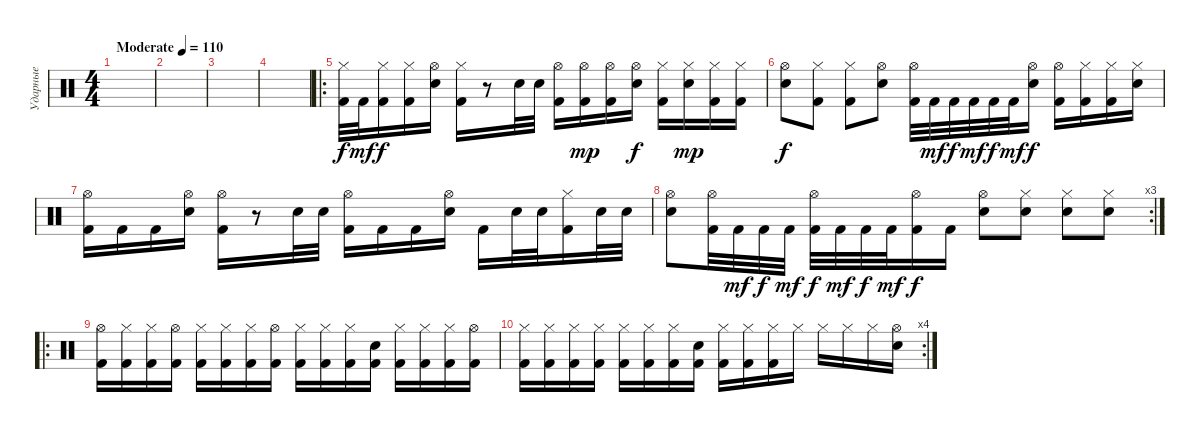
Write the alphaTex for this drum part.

\track ("Ударные" "Ударные") {instrument percussion}
\staff {score}
\articulation defaults
\ts (4 4)
\tempo (110 "Moderate")
\clef neutral
\ks c
|
|
|
|
\ro
("Hi-Hat (closed)" "Kick (hit) 2").32 "Kick (hit) 2".32{dy mf} ("Hi-Hat (closed)" "Kick (hit) 2").16{dy f} ("Hi-Hat (closed)" "Kick (hit) 2").16 ("Hi-Hat (open)" "Electric Snare (hit)").16 ("Hi-Hat (closed)" "Kick (hit) 2").16 r.8 "Electric Snare (hit)".32 "Electric Snare (hit)".32 ("Hi-Hat (open)" "Kick (hit) 2").16 ("Hi-Hat (open)" "Kick (hit) 2").16{dy mp} ("Hi-Hat (open)" "Kick (hit) 2").16 ("Hi-Hat (open)" "Electric Snare (hit)").16{dy f} ("Hi-Hat (closed)" "Kick (hit) 2").16 ("Hi-Hat (closed)" "Electric Snare (hit)").16{dy mp} ("Hi-Hat (closed)" "Kick (hit) 2").16 ("Hi-Hat (closed)" "Kick (hit) 2").16 |
("Hi-Hat (open)" "Electric Snare (hit)").8{dy f} ("Hi-Hat (closed)" "Kick (hit) 2").8 ("Hi-Hat (closed)" "Kick (hit) 2").8 ("Hi-Hat (open)" "Electric Snare (hit)").8 ("Hi-Hat (open)" "Kick (hit) 2").32 "Kick (hit) 2".32{dy mf} "Kick (hit) 2".32{dy f} "Kick (hit) 2".32{dy mf} "Kick (hit) 2".32{dy f} "Kick (hit) 2".32{dy mf} ("Hi-Hat (open)" "Electric Snare (hit)").16{dy f} ("Hi-Hat (open)" "Kick (hit) 2").16 ("Hi-Hat (closed)" "Kick (hit) 2").16 ("Hi-Hat (closed)" "Kick (hit) 2").16 ("Hi-Hat (closed)" "Electric Snare (hit)").16 |
("Hi-Hat (open)" "Kick (hit) 2").16 "Kick (hit) 2".16 "Kick (hit) 2".16 ("Hi-Hat (open)" "Electric Snare (hit)").16 ("Hi-Hat (open)" "Kick (hit) 2").16 r.8 "Electric Snare (hit)".32 "Electric Snare (hit)".32 ("Hi-Hat (open)" "Kick (hit) 2").16 "Kick (hit) 2".16 "Kick (hit) 2".16 ("Hi-Hat (open)" "Electric Snare (hit)").16 "Kick (hit) 2".16 "Electric Snare (hit)".32 "Electric Snare (hit)".32 ("Hi-Hat (closed)" "Kick (hit) 2").16 "Electric Snare (hit)".32 "Electric Snare (hit)".32 |
\rc 3
("Hi-Hat (open)" "Electric Snare (hit)").8 ("Hi-Hat (open)" "Kick (hit) 2").32 "Kick (hit) 2".32{dy mf} "Kick (hit) 2".32{dy f} "Kick (hit) 2".32{dy mf} ("Hi-Hat (open)" "Kick (hit) 2").32{dy f} "Kick (hit) 2".32{dy mf} "Kick (hit) 2".32{dy f} "Kick (hit) 2".32{dy mf} ("Hi-Hat (open)" "Kick (hit) 2").16{dy f} "Kick (hit) 2".16 ("Hi-Hat (open)" "Electric Snare (hit)").8 ("Hi-Hat (closed)" "Electric Snare (hit)").8 ("Hi-Hat (closed)" "Electric Snare (hit)").8 ("Hi-Hat (closed)" "Electric Snare (hit)").8 |
\ro
("Hi-Hat (open)" "Kick (hit) 2").16 ("Hi-Hat (closed)" "Kick (hit) 2").16 ("Hi-Hat (closed)" "Kick (hit) 2").16 ("Hi-Hat (open)" "Kick (hit) 2").16 ("Hi-Hat (closed)" "Kick (hit) 2").16 ("Hi-Hat (closed)" "Kick (hit) 2").16 ("Hi-Hat (closed)" "Kick (hit) 2").16 ("Hi-Hat (open)" "Kick (hit) 2").16 ("Hi-Hat (closed)" "Kick (hit) 2").16 ("Hi-Hat (closed)" "Kick (hit) 2").16 ("Hi-Hat (closed)" "Kick (hit) 2").16 ("Electric Snare (hit)" "Kick (hit) 2").16 ("Hi-Hat (closed)" "Kick (hit) 2").16 ("Hi-Hat (closed)" "Kick (hit) 2").16 ("Hi-Hat (closed)" "Kick (hit) 2").16 ("Hi-Hat (open)" "Kick (hit) 2").16 |
\rc 4
("Hi-Hat (closed)" "Kick (hit) 2").16 ("Hi-Hat (closed)" "Kick (hit) 2").16 ("Hi-Hat (closed)" "Kick (hit) 2").16 ("Hi-Hat (closed)" "Kick (hit) 2").16 ("Hi-Hat (closed)" "Kick (hit) 2").16 ("Hi-Hat (closed)" "Kick (hit) 2").16 ("Hi-Hat (closed)" "Kick (hit) 2").16 ("Electric Snare (hit)" "Kick (hit) 2").16 ("Hi-Hat (closed)" "Kick (hit) 2").16 ("Hi-Hat (closed)" "Kick (hit) 2").16 ("Hi-Hat (closed)" "Kick (hit) 2").16 "Hi-Hat (closed)".16 "Hi-Hat (closed)".16 "Hi-Hat (closed)".16 "Hi-Hat (closed)".16 ("Hi-Hat (open)" "Electric Snare (hit)").16
